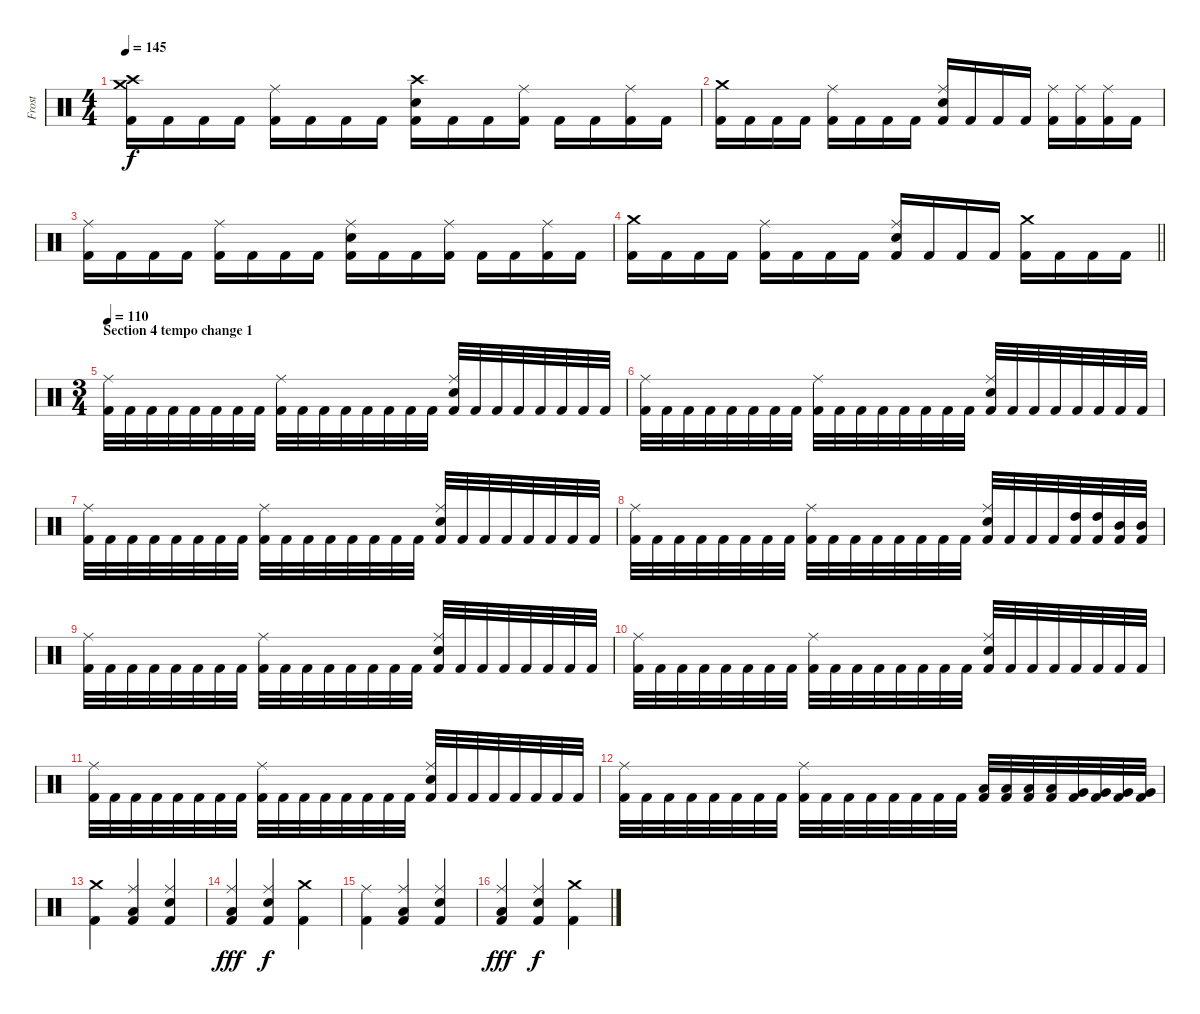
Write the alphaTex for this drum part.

\track ("Frost" "Frost") {instrument percussion}
\staff {score}
\articulation defaults
\ts (4 4)
\tempo 145
\clef neutral
\ks c
("Crash medium (hit)" "Crash high (hit)" "Kick (hit) 2").16{dy f} "Kick (hit) 2".16 "Kick (hit) 2".16 "Kick (hit) 2".16 ("Ride (middle)" "Kick (hit) 2").16 "Kick (hit) 2".16 "Kick (hit) 2".16 "Kick (hit) 2".16 ("Crash high (hit)" "Electric Snare (hit)" "Kick (hit) 2").16 "Kick (hit) 2".16 "Kick (hit) 2".16 ("Ride (middle)" "Kick (hit) 2").16 "Kick (hit) 2".16 "Kick (hit) 2".16 ("Ride (middle)" "Kick (hit) 2").16 "Kick (hit) 2".16 |
("Crash medium (hit)" "Kick (hit) 2").16 "Kick (hit) 2".16 "Kick (hit) 2".16 "Kick (hit) 2".16 ("Ride (middle)" "Kick (hit) 2").16 "Kick (hit) 2".16 "Kick (hit) 2".16 "Kick (hit) 2".16 ("Ride (middle)" "Electric Snare (hit)" "Kick (hit) 2").16 "Kick (hit) 2".16 "Kick (hit) 2".16 "Kick (hit) 2".16 ("Ride (middle)" "Kick (hit) 2").16 ("Ride (middle)" "Kick (hit) 2").16 ("Ride (middle)" "Kick (hit) 2").16 "Kick (hit) 2".16 |
("Ride (middle)" "Kick (hit) 2").16 "Kick (hit) 2".16 "Kick (hit) 2".16 "Kick (hit) 2".16 ("Ride (middle)" "Kick (hit) 2").16 "Kick (hit) 2".16 "Kick (hit) 2".16 "Kick (hit) 2".16 ("Ride (middle)" "Electric Snare (hit)" "Kick (hit) 2").16 "Kick (hit) 2".16 "Kick (hit) 2".16 ("Ride (middle)" "Kick (hit) 2").16 "Kick (hit) 2".16 "Kick (hit) 2".16 ("Ride (middle)" "Kick (hit) 2").16 "Kick (hit) 2".16 |
\barLineRight lightlight
("Crash medium (hit)" "Kick (hit) 2").16 "Kick (hit) 2".16 "Kick (hit) 2".16 "Kick (hit) 2".16 ("Ride (middle)" "Kick (hit) 2").16 "Kick (hit) 2".16 "Kick (hit) 2".16 "Kick (hit) 2".16 ("Ride (middle)" "Electric Snare (hit)" "Kick (hit) 2").16 "Kick (hit) 2".16 "Kick (hit) 2".16 "Kick (hit) 2".16 ("Crash medium (hit)" "Kick (hit) 2").16 "Kick (hit) 2".16 "Kick (hit) 2".16 "Kick (hit) 2".16 |
\ts (3 4)
\section ("" "Section 4 tempo change 1")
\tempo 110
("Ride (middle)" "Kick (hit) 2").32 "Kick (hit) 2".32 "Kick (hit) 2".32 "Kick (hit) 2".32 "Kick (hit) 2".32 "Kick (hit) 2".32 "Kick (hit) 2".32 "Kick (hit) 2".32 ("Ride (middle)" "Kick (hit) 2").32 "Kick (hit) 2".32 "Kick (hit) 2".32 "Kick (hit) 2".32 "Kick (hit) 2".32 "Kick (hit) 2".32 "Kick (hit) 2".32 "Kick (hit) 2".32 ("Ride (middle)" "Electric Snare (hit)" "Kick (hit) 2").32 "Kick (hit) 2".32 "Kick (hit) 2".32 "Kick (hit) 2".32 "Kick (hit) 2".32 "Kick (hit) 2".32 "Kick (hit) 2".32 "Kick (hit) 2".32 |
("Ride (middle)" "Kick (hit) 2").32 "Kick (hit) 2".32 "Kick (hit) 2".32 "Kick (hit) 2".32 "Kick (hit) 2".32 "Kick (hit) 2".32 "Kick (hit) 2".32 "Kick (hit) 2".32 ("Ride (middle)" "Kick (hit) 2").32 "Kick (hit) 2".32 "Kick (hit) 2".32 "Kick (hit) 2".32 "Kick (hit) 2".32 "Kick (hit) 2".32 "Kick (hit) 2".32 "Kick (hit) 2".32 ("Ride (middle)" "Electric Snare (hit)" "Kick (hit) 2").32 "Kick (hit) 2".32 "Kick (hit) 2".32 "Kick (hit) 2".32 "Kick (hit) 2".32 "Kick (hit) 2".32 "Kick (hit) 2".32 "Kick (hit) 2".32 |
("Ride (middle)" "Kick (hit) 2").32 "Kick (hit) 2".32 "Kick (hit) 2".32 "Kick (hit) 2".32 "Kick (hit) 2".32 "Kick (hit) 2".32 "Kick (hit) 2".32 "Kick (hit) 2".32 ("Ride (middle)" "Kick (hit) 2").32 "Kick (hit) 2".32 "Kick (hit) 2".32 "Kick (hit) 2".32 "Kick (hit) 2".32 "Kick (hit) 2".32 "Kick (hit) 2".32 "Kick (hit) 2".32 ("Ride (middle)" "Electric Snare (hit)" "Kick (hit) 2").32 "Kick (hit) 2".32 "Kick (hit) 2".32 "Kick (hit) 2".32 "Kick (hit) 2".32 "Kick (hit) 2".32 "Kick (hit) 2".32 "Kick (hit) 2".32 |
("Ride (middle)" "Kick (hit) 2").32 "Kick (hit) 2".32 "Kick (hit) 2".32 "Kick (hit) 2".32 "Kick (hit) 2".32 "Kick (hit) 2".32 "Kick (hit) 2".32 "Kick (hit) 2".32 ("Ride (middle)" "Kick (hit) 2").32 "Kick (hit) 2".32 "Kick (hit) 2".32 "Kick (hit) 2".32 "Kick (hit) 2".32 "Kick (hit) 2".32 "Kick (hit) 2".32 "Kick (hit) 2".32 ("Ride (middle)" "Electric Snare (hit)" "Kick (hit) 2").32 "Kick (hit) 2".32 "Kick (hit) 2".32 "Kick (hit) 2".32 ("High Tom (hit)" "Kick (hit) 2").32 ("High Tom (hit)" "Kick (hit) 2").32 ("Mid Tom (hit)" "Kick (hit) 2").32 ("Mid Tom (hit)" "Kick (hit) 2").32 |
("Ride (middle)" "Kick (hit) 2").32 "Kick (hit) 2".32 "Kick (hit) 2".32 "Kick (hit) 2".32 "Kick (hit) 2".32 "Kick (hit) 2".32 "Kick (hit) 2".32 "Kick (hit) 2".32 ("Ride (middle)" "Kick (hit) 2").32 "Kick (hit) 2".32 "Kick (hit) 2".32 "Kick (hit) 2".32 "Kick (hit) 2".32 "Kick (hit) 2".32 "Kick (hit) 2".32 "Kick (hit) 2".32 ("Ride (middle)" "Electric Snare (hit)" "Kick (hit) 2").32 "Kick (hit) 2".32 "Kick (hit) 2".32 "Kick (hit) 2".32 "Kick (hit) 2".32 "Kick (hit) 2".32 "Kick (hit) 2".32 "Kick (hit) 2".32 |
("Ride (middle)" "Kick (hit) 2").32 "Kick (hit) 2".32 "Kick (hit) 2".32 "Kick (hit) 2".32 "Kick (hit) 2".32 "Kick (hit) 2".32 "Kick (hit) 2".32 "Kick (hit) 2".32 ("Ride (middle)" "Kick (hit) 2").32 "Kick (hit) 2".32 "Kick (hit) 2".32 "Kick (hit) 2".32 "Kick (hit) 2".32 "Kick (hit) 2".32 "Kick (hit) 2".32 "Kick (hit) 2".32 ("Ride (middle)" "Electric Snare (hit)" "Kick (hit) 2").32 "Kick (hit) 2".32 "Kick (hit) 2".32 "Kick (hit) 2".32 "Kick (hit) 2".32 "Kick (hit) 2".32 "Kick (hit) 2".32 "Kick (hit) 2".32 |
("Ride (middle)" "Kick (hit) 2").32 "Kick (hit) 2".32 "Kick (hit) 2".32 "Kick (hit) 2".32 "Kick (hit) 2".32 "Kick (hit) 2".32 "Kick (hit) 2".32 "Kick (hit) 2".32 ("Ride (middle)" "Kick (hit) 2").32 "Kick (hit) 2".32 "Kick (hit) 2".32 "Kick (hit) 2".32 "Kick (hit) 2".32 "Kick (hit) 2".32 "Kick (hit) 2".32 "Kick (hit) 2".32 ("Ride (middle)" "Electric Snare (hit)" "Kick (hit) 2").32 "Kick (hit) 2".32 "Kick (hit) 2".32 "Kick (hit) 2".32 "Kick (hit) 2".32 "Kick (hit) 2".32 "Kick (hit) 2".32 "Kick (hit) 2".32 |
("Ride (middle)" "Kick (hit) 2").32 "Kick (hit) 2".32 "Kick (hit) 2".32 "Kick (hit) 2".32 "Kick (hit) 2".32 "Kick (hit) 2".32 "Kick (hit) 2".32 "Kick (hit) 2".32 ("Ride (middle)" "Kick (hit) 2").32 "Kick (hit) 2".32 "Kick (hit) 2".32 "Kick (hit) 2".32 "Kick (hit) 2".32 "Kick (hit) 2".32 "Kick (hit) 2".32 "Kick (hit) 2".32 ("Low Tom (hit)" "Kick (hit) 2").32 ("Low Tom (hit)" "Kick (hit) 2").32 ("Low Tom (hit)" "Kick (hit) 2").32 ("Low Tom (hit)" "Kick (hit) 2").32 ("Very Low Tom (hit)" "Kick (hit) 2").32 ("Very Low Tom (hit)" "Kick (hit) 2").32 ("Very Low Tom (hit)" "Kick (hit) 2").32 ("Very Low Tom (hit)" "Kick (hit) 2").32 |
("Crash medium (hit)" "Kick (hit) 2").4 ("Ride (middle)" "Low Floor Tom (hit)" "Kick (hit) 2").4 ("Ride (middle)" "Electric Snare (hit)" "Kick (hit) 2").4 |
("Ride (middle)" "Low Floor Tom (hit)" "Kick (hit) 2").4{dy fff} ("Ride (middle)" "Electric Snare (hit)" "Kick (hit) 2").4{dy f} ("Crash medium (hit)" "Kick (hit) 2").4 |
("Ride (middle)" "Kick (hit) 2").4 ("Ride (middle)" "Low Floor Tom (hit)" "Kick (hit) 2").4 ("Ride (middle)" "Electric Snare (hit)" "Kick (hit) 2").4 |
("Ride (middle)" "Low Floor Tom (hit)" "Kick (hit) 2").4{dy fff} ("Ride (middle)" "Electric Snare (hit)" "Kick (hit) 2").4{dy f} ("Crash medium (hit)" "Kick (hit) 2").4
